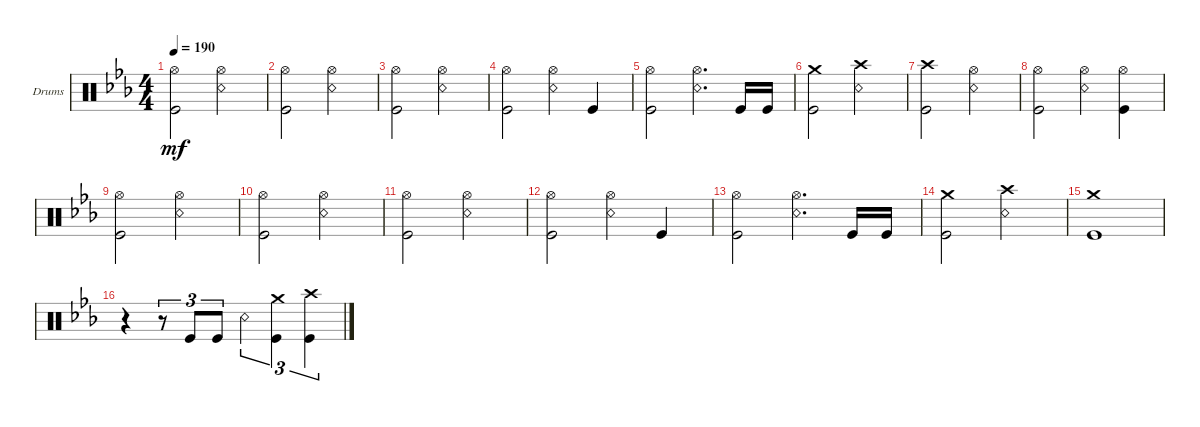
\defaultSystemsLayout 4
\bracketExtendMode groupsimilarinstruments
\firstSystemTrackNameOrientation horizontal
\otherSystemsTrackNameOrientation horizontal
\track ("Drumkit" "Drums") {instrument percussion}
\staff {score}
\articulation defaults
\ts (4 4)
\tempo 190
\clef neutral
\ks cminor
("Kick (hit)" "Hi-Hat (open)").2{dy mf} ("Snare (rim shot)" "Hi-Hat (open)").2 |
("Kick (hit)" "Hi-Hat (open)").2 ("Snare (rim shot)" "Hi-Hat (open)").2 |
("Kick (hit)" "Hi-Hat (open)").2 ("Snare (rim shot)" "Hi-Hat (open)").2 |
("Kick (hit)" "Hi-Hat (open)").2 ("Snare (rim shot)" "Hi-Hat (open)").4 "Kick (hit)".4 |
("Kick (hit)" "Hi-Hat (open)").2 ("Snare (rim shot)" "Hi-Hat (open)").4{d} "Kick (hit)".16 "Kick (hit)".16 |
("Kick (hit)" "Crash medium (hit)").2 ("Crash high (hit)" "Snare (rim shot)").2 |
("Kick (hit)" "Crash high (hit)").2 ("Snare (rim shot)" "Hi-Hat (open)").2 |
("Kick (hit)" "Hi-Hat (open)").2 ("Snare (rim shot)" "Hi-Hat (open)").4 ("Kick (hit)" "Hi-Hat (open)").4 |
("Kick (hit)" "Hi-Hat (open)").2 ("Snare (rim shot)" "Hi-Hat (open)").2 |
("Kick (hit)" "Hi-Hat (open)").2 ("Snare (rim shot)" "Hi-Hat (open)").2 |
("Kick (hit)" "Hi-Hat (open)").2 ("Snare (rim shot)" "Hi-Hat (open)").2 |
("Kick (hit)" "Hi-Hat (open)").2 ("Snare (rim shot)" "Hi-Hat (open)").4 "Kick (hit)".4 |
("Kick (hit)" "Hi-Hat (open)").2 ("Snare (rim shot)" "Hi-Hat (open)").4{d} "Kick (hit)".16 "Kick (hit)".16 |
("Kick (hit)" "Crash medium (hit)").2 ("Crash high (hit)" "Snare (rim shot)").2 |
("Kick (hit)" "Crash medium (hit)").1 |
r.4 r.8{tu (3 2)} "Kick (hit)".8{tu (3 2)} "Kick (hit)".8{tu (3 2)} "Snare (rim shot)".4{tu (3 2)} ("Kick (hit)" "Crash medium (hit)").4{tu (3 2)} ("Kick (hit)" "Crash high (hit)").4{tu (3 2)}
